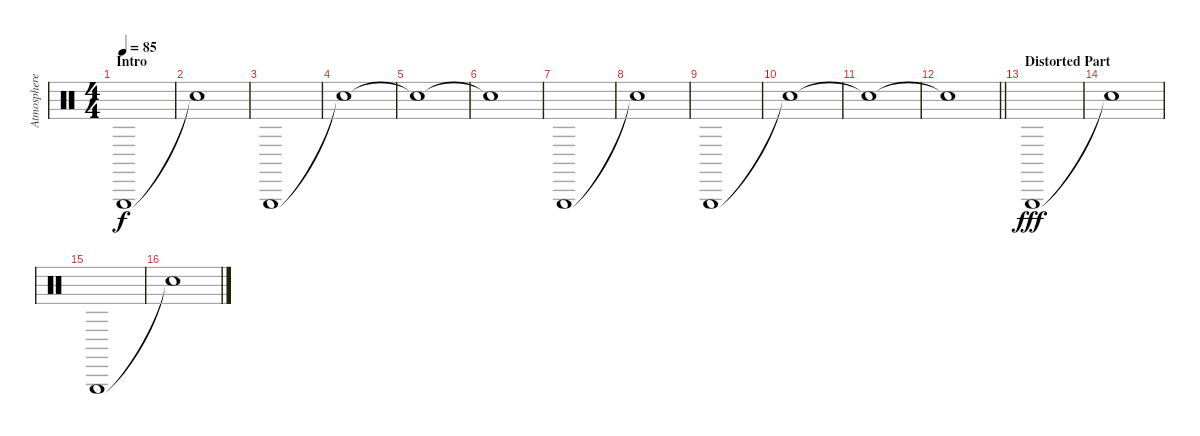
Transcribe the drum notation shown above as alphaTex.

\track ("Atmosphere" "Atmosphere") {instrument percussion}
\staff {score}
\articulation defaults
\ts (4 4)
\section ("" "Intro")
\tempo 85
\clef neutral
\ks c "Triangle (hit)".1{dy f}
|
"Snare (hit)"{t}.1 |
"Triangle (hit)".1 |
"Snare (hit)"{t}.1 |
"Snare (hit)"{t}.1 |
"Snare (hit)"{t}.1 |
"Triangle (hit)".1 |
"Snare (hit)"{t}.1 |
"Triangle (hit)".1 |
"Snare (hit)"{t}.1 |
"Snare (hit)"{t}.1 |
\barLineRight lightlight "Snare (hit)"{t}.1
|
\section ("" "Distorted Part")
"Triangle (hit)".1{dy fff} |
"Snare (hit)"{t}.1 |
"Triangle (hit)".1 |
"Snare (hit)"{t}.1
